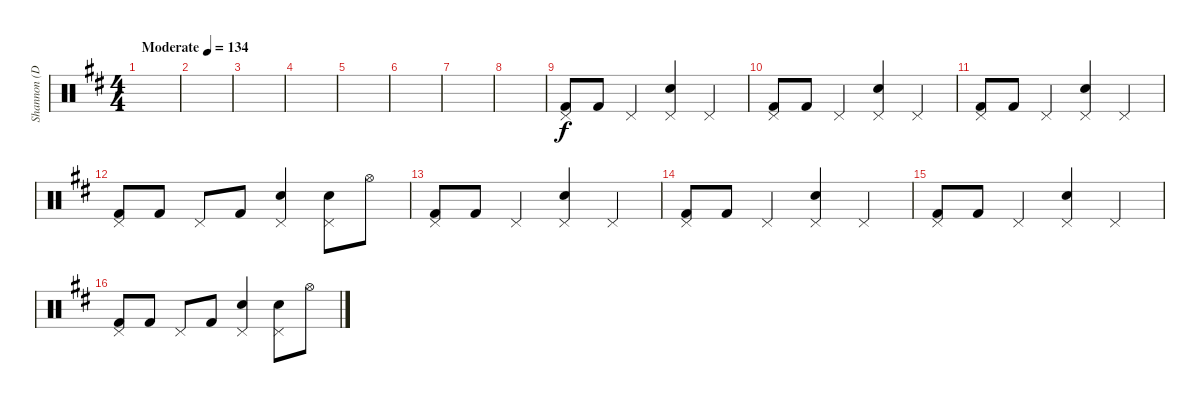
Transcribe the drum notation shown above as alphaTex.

\track ("Shannon (Drums)" "Shannon (D") {instrument percussion}
\staff {score}
\articulation defaults
\ts (4 4)
\tempo (134 "Moderate")
\clef neutral
\ks d
|
|
|
|
|
|
|
|
("Pedal Hi-Hat (hit)" "Kick (hit) 2").8 "Kick (hit) 2".8 "Pedal Hi-Hat (hit)".4 ("Pedal Hi-Hat (hit)" "Electric Snare (hit)").4 "Pedal Hi-Hat (hit)".4 |
("Pedal Hi-Hat (hit)" "Kick (hit) 2").8 "Kick (hit) 2".8 "Pedal Hi-Hat (hit)".4 ("Pedal Hi-Hat (hit)" "Electric Snare (hit)").4 "Pedal Hi-Hat (hit)".4 |
("Pedal Hi-Hat (hit)" "Kick (hit) 2").8 "Kick (hit) 2".8 "Pedal Hi-Hat (hit)".4 ("Pedal Hi-Hat (hit)" "Electric Snare (hit)").4 "Pedal Hi-Hat (hit)".4 |
("Pedal Hi-Hat (hit)" "Kick (hit) 2").8 "Kick (hit) 2".8 "Pedal Hi-Hat (hit)".8 "Kick (hit) 2".8 ("Pedal Hi-Hat (hit)" "Electric Snare (hit)").4 ("Pedal Hi-Hat (hit)" "Electric Snare (hit)").8 "Hi-Hat (open)".8 |
("Pedal Hi-Hat (hit)" "Kick (hit) 2").8 "Kick (hit) 2".8 "Pedal Hi-Hat (hit)".4 ("Pedal Hi-Hat (hit)" "Electric Snare (hit)").4 "Pedal Hi-Hat (hit)".4 |
("Pedal Hi-Hat (hit)" "Kick (hit) 2").8 "Kick (hit) 2".8 "Pedal Hi-Hat (hit)".4 ("Pedal Hi-Hat (hit)" "Electric Snare (hit)").4 "Pedal Hi-Hat (hit)".4 |
("Pedal Hi-Hat (hit)" "Kick (hit) 2").8 "Kick (hit) 2".8 "Pedal Hi-Hat (hit)".4 ("Pedal Hi-Hat (hit)" "Electric Snare (hit)").4 "Pedal Hi-Hat (hit)".4 |
("Pedal Hi-Hat (hit)" "Kick (hit) 2").8 "Kick (hit) 2".8 "Pedal Hi-Hat (hit)".8 "Kick (hit) 2".8 ("Pedal Hi-Hat (hit)" "Electric Snare (hit)").4 ("Pedal Hi-Hat (hit)" "Electric Snare (hit)").8 "Hi-Hat (open)".8
